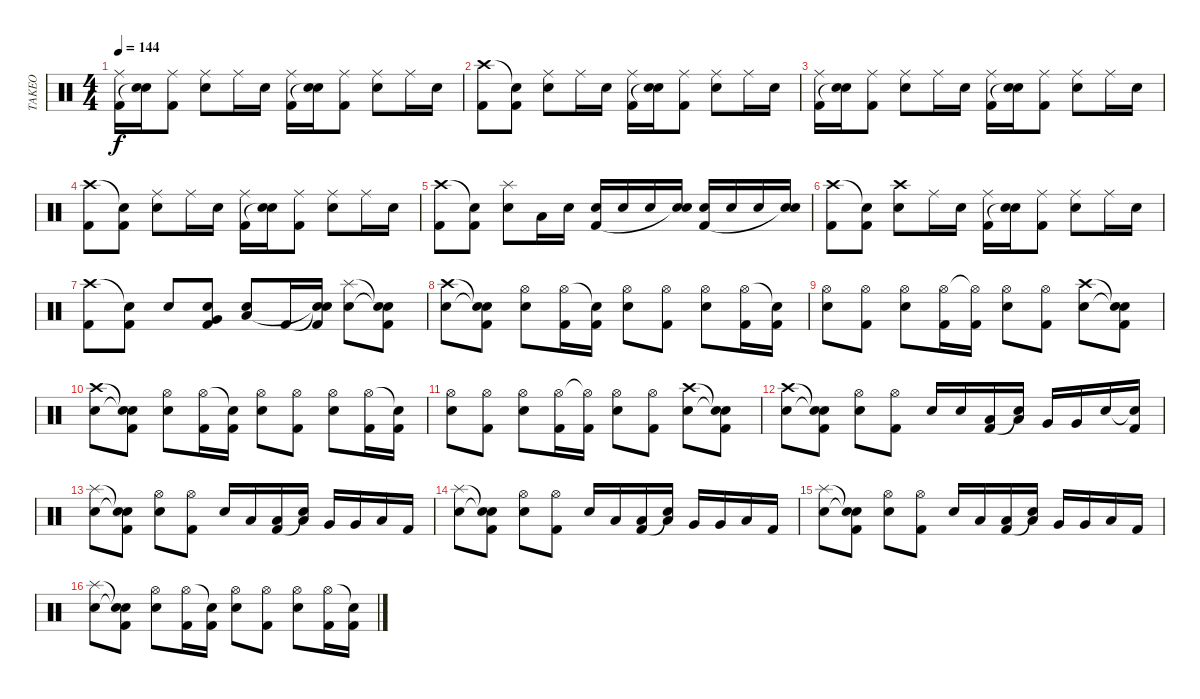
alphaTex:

\track ("TAKEO" "TAKEO") {instrument percussion}
\staff {score}
\articulation defaults
\ts (4 4)
\tempo 144
\clef neutral
\ks c
("Ride (middle)" "Kick (hit) 2").16{dy f} ("Electric Snare (hit)" "Snare (hit)"{t}).16 ("Ride (middle)" "Kick (hit) 2").8 ("Ride (middle)" "Electric Snare (hit)").8 "Ride (middle)".16 "Electric Snare (hit)".16 ("Ride (middle)" "Kick (hit) 2").16 ("Electric Snare (hit)" "Snare (hit)"{t}).16 ("Ride (middle)" "Kick (hit) 2").8 ("Ride (middle)" "Electric Snare (hit)").8 "Ride (middle)".16 "Electric Snare (hit)".16 |
("Crash high (hit)" "Kick (hit) 2").8 ("Snare (hit)"{t} "Kick (hit) 2").8 ("Ride (middle)" "Electric Snare (hit)").8 "Ride (middle)".16 "Electric Snare (hit)".16 ("Ride (middle)" "Kick (hit) 2").16 ("Electric Snare (hit)" "Snare (hit)"{t}).16 ("Ride (middle)" "Kick (hit) 2").8 ("Ride (middle)" "Electric Snare (hit)").8 "Ride (middle)".16 "Electric Snare (hit)".16 |
("Ride (middle)" "Kick (hit) 2").16 ("Electric Snare (hit)" "Snare (hit)"{t}).16 ("Ride (middle)" "Kick (hit) 2").8 ("Ride (middle)" "Electric Snare (hit)").8 "Ride (middle)".16 "Electric Snare (hit)".16 ("Ride (middle)" "Kick (hit) 2").16 ("Electric Snare (hit)" "Snare (hit)"{t}).16 ("Ride (middle)" "Kick (hit) 2").8 ("Ride (middle)" "Electric Snare (hit)").8 "Ride (middle)".16 "Electric Snare (hit)".16 |
("Crash high (hit)" "Kick (hit) 2").8 ("Snare (hit)"{t} "Kick (hit) 2").8 ("Ride (middle)" "Electric Snare (hit)").8 "Ride (middle)".16 "Electric Snare (hit)".16 ("Ride (middle)" "Kick (hit) 2").16 ("Electric Snare (hit)" "Snare (hit)"{t}).16 ("Ride (middle)" "Kick (hit) 2").8 ("Ride (middle)" "Electric Snare (hit)").8 "Ride (middle)".16 "Electric Snare (hit)".16 |
("Crash high (hit)" "Kick (hit) 2").8 ("Snare (hit)"{t} "Kick (hit) 2").8 ("Splash (hit)" "Electric Snare (hit)").8 "Low Floor Tom (hit)".16 "Electric Snare (hit)".16 ("Electric Snare (hit)" "Kick (hit) 2").16 "Electric Snare (hit)".16 "Electric Snare (hit)".16 ("Electric Snare (hit)" "Snare (hit)"{t}).16 ("Electric Snare (hit)" "Kick (hit) 2").16 "Electric Snare (hit)".16 "Electric Snare (hit)".16 ("Electric Snare (hit)" "Snare (hit)"{t}).16 |
("Crash high (hit)" "Kick (hit) 2").8 ("Snare (hit)"{t} "Kick (hit) 2").8 ("Crash high (hit)" "Electric Snare (hit)").8 "Ride (middle)".16 "Electric Snare (hit)".16 ("Ride (middle)" "Kick (hit) 2").16 ("Electric Snare (hit)" "Snare (hit)"{t}).16 ("Ride (middle)" "Kick (hit) 2").8 ("Ride (middle)" "Electric Snare (hit)").8 "Ride (middle)".16 "Electric Snare (hit)".16 |
("Crash high (hit)" "Kick (hit) 2").8 ("Snare (hit)"{t} "Kick (hit) 2").8 "Electric Snare (hit)".8 ("Electric Snare (hit)" "Very Low Tom (hit)" "Kick (hit) 2").8 ("Electric Snare (hit)" "Low Floor Tom (hit)").8 "Kick (hit) 2".16 ("Snare (hit)"{t} "Snare (hit)"{t} "Kick (hit) 2").16 ("Splash (hit)" "Electric Snare (hit)").8 ("Snare (hit)"{t} "Snare (hit)"{t} "Kick (hit) 2").8 |
("Crash high (hit)" "Electric Snare (hit)").8 ("Snare (hit)"{t} "Snare (hit)"{t} "Kick (hit) 2").8 ("Hi-Hat (open)" "Electric Snare (hit)").8 ("Hi-Hat (open)" "Kick (hit) 2").16 ("Snare (hit)"{t} "Kick (hit) 2").16 ("Hi-Hat (open)" "Electric Snare (hit)").8 ("Hi-Hat (open)" "Kick (hit) 2").8 ("Hi-Hat (open)" "Electric Snare (hit)").8 ("Hi-Hat (open)" "Kick (hit) 2").16 ("Snare (hit)"{t} "Kick (hit) 2").16 |
("Hi-Hat (open)" "Electric Snare (hit)").8 ("Hi-Hat (open)" "Kick (hit) 2").8 ("Hi-Hat (open)" "Electric Snare (hit)").8 ("Hi-Hat (open)" "Kick (hit) 2").16 ("Hi-Hat (open)"{t} "Kick (hit) 2").16 ("Hi-Hat (open)" "Electric Snare (hit)").8 ("Hi-Hat (open)" "Kick (hit) 2").8 ("Crash high (hit)" "Electric Snare (hit)").8 ("Snare (hit)"{t} "Snare (hit)"{t} "Kick (hit) 2").8 |
("Crash high (hit)" "Electric Snare (hit)").8 ("Snare (hit)"{t} "Snare (hit)"{t} "Kick (hit) 2").8 ("Hi-Hat (open)" "Electric Snare (hit)").8 ("Hi-Hat (open)" "Kick (hit) 2").16 ("Snare (hit)"{t} "Kick (hit) 2").16 ("Hi-Hat (open)" "Electric Snare (hit)").8 ("Hi-Hat (open)" "Kick (hit) 2").8 ("Hi-Hat (open)" "Electric Snare (hit)").8 ("Hi-Hat (open)" "Kick (hit) 2").16 ("Snare (hit)"{t} "Kick (hit) 2").16 |
("Hi-Hat (open)" "Electric Snare (hit)").8 ("Hi-Hat (open)" "Kick (hit) 2").8 ("Hi-Hat (open)" "Electric Snare (hit)").8 ("Hi-Hat (open)" "Kick (hit) 2").16 ("Hi-Hat (open)"{t} "Kick (hit) 2").16 ("Hi-Hat (open)" "Electric Snare (hit)").8 ("Hi-Hat (open)" "Kick (hit) 2").8 ("Crash high (hit)" "Electric Snare (hit)").8 ("Snare (hit)"{t} "Snare (hit)"{t} "Kick (hit) 2").8 |
("Crash high (hit)" "Electric Snare (hit)").8 ("Snare (hit)"{t} "Snare (hit)"{t} "Kick (hit) 2").8 ("Hi-Hat (open)" "Electric Snare (hit)").8 ("Hi-Hat (open)" "Kick (hit) 2").8 "Electric Snare (hit)".16 "Electric Snare (hit)".16 ("Low Tom (hit)" "Kick (hit) 2").16 ("Low Tom (hit)" "Snare (hit)"{t}).16 "Very Low Tom (hit)".16 "Very Low Tom (hit)".16 "Electric Snare (hit)".16 ("Snare (hit)"{t} "Kick (hit) 2").16 |
("Splash (hit)" "Electric Snare (hit)").8 ("Snare (hit)"{t} "Snare (hit)"{t} "Kick (hit) 2").8 ("Hi-Hat (open)" "Electric Snare (hit)").8 ("Hi-Hat (open)" "Kick (hit) 2").8 "Electric Snare (hit)".16 "Low Tom (hit)".16 ("Low Tom (hit)" "Kick (hit) 2").16 ("Low Tom (hit)" "Snare (hit)"{t}).16 "Very Low Tom (hit)".16 "Very Low Tom (hit)".16 "Low Floor Tom (hit)".16 "Kick (hit) 2".16 |
("Splash (hit)" "Electric Snare (hit)").8 ("Snare (hit)"{t} "Snare (hit)"{t} "Kick (hit) 2").8 ("Hi-Hat (open)" "Electric Snare (hit)").8 ("Hi-Hat (open)" "Kick (hit) 2").8 "Electric Snare (hit)".16 "Low Tom (hit)".16 ("Low Tom (hit)" "Kick (hit) 2").16 ("Low Tom (hit)" "Snare (hit)"{t}).16 "Very Low Tom (hit)".16 "Very Low Tom (hit)".16 "Low Floor Tom (hit)".16 "Kick (hit) 2".16 |
("Splash (hit)" "Electric Snare (hit)").8 ("Snare (hit)"{t} "Snare (hit)"{t} "Kick (hit) 2").8 ("Hi-Hat (open)" "Electric Snare (hit)").8 ("Hi-Hat (open)" "Kick (hit) 2").8 "Electric Snare (hit)".16 "Low Tom (hit)".16 ("Low Tom (hit)" "Kick (hit) 2").16 ("Low Tom (hit)" "Snare (hit)"{t}).16 "Very Low Tom (hit)".16 "Very Low Tom (hit)".16 "Low Floor Tom (hit)".16 "Kick (hit) 2".16 |
("Splash (hit)" "Electric Snare (hit)").8 ("Snare (hit)"{t} "Snare (hit)"{t} "Kick (hit) 2").8 ("Hi-Hat (open)" "Electric Snare (hit)").8 ("Hi-Hat (open)" "Kick (hit) 2").16 ("Snare (hit)"{t} "Kick (hit) 2").16 ("Hi-Hat (open)" "Electric Snare (hit)").8 ("Hi-Hat (open)" "Kick (hit) 2").8 ("Hi-Hat (open)" "Electric Snare (hit)").8 ("Hi-Hat (open)" "Kick (hit) 2").16 ("Snare (hit)"{t} "Kick (hit) 2").16
